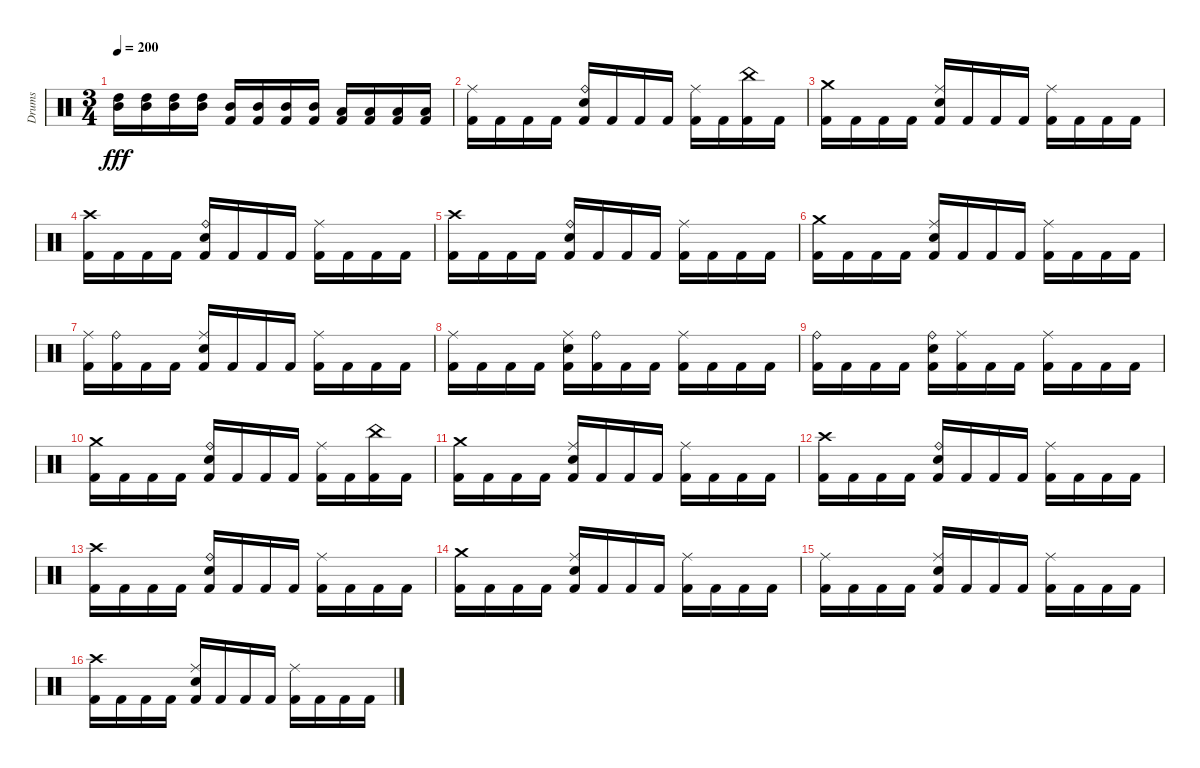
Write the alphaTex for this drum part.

\track ("Drums" "Drums") {instrument percussion}
\staff {score}
\articulation defaults
\ts (3 4)
\tempo 200
\clef neutral
\ks c
("High Tom (hit)" "Mid Tom (hit)").16{dy fff} ("High Tom (hit)" "Mid Tom (hit)").16 ("High Tom (hit)" "Mid Tom (hit)").16 ("High Tom (hit)" "Mid Tom (hit)").16 ("Mid Tom (hit)" "Kick (hit) 2").16 ("Mid Tom (hit)" "Kick (hit) 2").16 ("Mid Tom (hit)" "Kick (hit) 2").16 ("Mid Tom (hit)" "Kick (hit) 2").16 ("Low Tom (hit)" "Kick (hit) 2").16 ("Low Tom (hit)" "Kick (hit) 2").16 ("Low Tom (hit)" "Kick (hit) 2").16 ("Low Tom (hit)" "Kick (hit) 2").16 |
("Ride (middle)" "Kick (hit) 2").16 "Kick (hit) 2".16 "Kick (hit) 2".16 "Kick (hit) 2".16 ("Ride (bell)" "Snare (hit) 2" "Kick (hit) 2").16 "Kick (hit) 2".16 "Kick (hit) 2".16 "Kick (hit) 2".16 ("Ride (middle)" "Kick (hit) 2").16 "Kick (hit) 2".16 ("China (hit)" "Kick (hit) 2").16 "Kick (hit) 2".16 |
("Crash medium (hit)" "Kick (hit) 2").16 "Kick (hit) 2".16 "Kick (hit) 2".16 "Kick (hit) 2".16 ("Ride (middle)" "Snare (hit) 2" "Kick (hit) 2").16 "Kick (hit) 2".16 "Kick (hit) 2".16 "Kick (hit) 2".16 ("Ride (middle)" "Kick (hit) 2").16 "Kick (hit) 2".16 "Kick (hit) 2".16 "Kick (hit) 2".16 |
("Crash high (hit)" "Kick (hit) 2").16 "Kick (hit) 2".16 "Kick (hit) 2".16 "Kick (hit) 2".16 ("Ride (bell)" "Snare (hit) 2" "Kick (hit) 2").16 "Kick (hit) 2".16 "Kick (hit) 2".16 "Kick (hit) 2".16 ("Ride (middle)" "Kick (hit) 2").16 "Kick (hit) 2".16 "Kick (hit) 2".16 "Kick (hit) 2".16 |
("Crash high (hit)" "Kick (hit) 2").16 "Kick (hit) 2".16 "Kick (hit) 2".16 "Kick (hit) 2".16 ("Ride (bell)" "Snare (hit) 2" "Kick (hit) 2").16 "Kick (hit) 2".16 "Kick (hit) 2".16 "Kick (hit) 2".16 ("Ride (middle)" "Kick (hit) 2").16 "Kick (hit) 2".16 "Kick (hit) 2".16 "Kick (hit) 2".16 |
("Crash medium (hit)" "Kick (hit) 2").16 "Kick (hit) 2".16 "Kick (hit) 2".16 "Kick (hit) 2".16 ("Ride (middle)" "Snare (hit) 2" "Kick (hit) 2").16 "Kick (hit) 2".16 "Kick (hit) 2".16 "Kick (hit) 2".16 ("Ride (middle)" "Kick (hit) 2").16 "Kick (hit) 2".16 "Kick (hit) 2".16 "Kick (hit) 2".16 |
("Ride (middle)" "Kick (hit) 2").16 ("Ride (bell)" "Kick (hit) 2").16 "Kick (hit) 2".16 "Kick (hit) 2".16 ("Ride (middle)" "Snare (hit) 2" "Kick (hit) 2").16 "Kick (hit) 2".16 "Kick (hit) 2".16 "Kick (hit) 2".16 ("Ride (middle)" "Kick (hit) 2").16 "Kick (hit) 2".16 "Kick (hit) 2".16 "Kick (hit) 2".16 |
("Ride (middle)" "Kick (hit) 2").16 "Kick (hit) 2".16 "Kick (hit) 2".16 "Kick (hit) 2".16 ("Ride (middle)" "Snare (hit) 2" "Kick (hit) 2").16 ("Ride (bell)" "Kick (hit) 2").16 "Kick (hit) 2".16 "Kick (hit) 2".16 ("Ride (middle)" "Kick (hit) 2").16 "Kick (hit) 2".16 "Kick (hit) 2".16 "Kick (hit) 2".16 |
("Ride (bell)" "Kick (hit) 2").16 "Kick (hit) 2".16 "Kick (hit) 2".16 "Kick (hit) 2".16 ("Ride (bell)" "Snare (hit) 2" "Kick (hit) 2").16 ("Ride (middle)" "Kick (hit) 2").16 "Kick (hit) 2".16 "Kick (hit) 2".16 ("Ride (middle)" "Kick (hit) 2").16 "Kick (hit) 2".16 "Kick (hit) 2".16 "Kick (hit) 2".16 |
("Crash medium (hit)" "Kick (hit) 2").16 "Kick (hit) 2".16 "Kick (hit) 2".16 "Kick (hit) 2".16 ("Ride (bell)" "Snare (hit) 2" "Kick (hit) 2").16 "Kick (hit) 2".16 "Kick (hit) 2".16 "Kick (hit) 2".16 ("Ride (middle)" "Kick (hit) 2").16 "Kick (hit) 2".16 ("China (hit)" "Kick (hit) 2").16 "Kick (hit) 2".16 |
("Crash medium (hit)" "Kick (hit) 2").16 "Kick (hit) 2".16 "Kick (hit) 2".16 "Kick (hit) 2".16 ("Ride (middle)" "Snare (hit) 2" "Kick (hit) 2").16 "Kick (hit) 2".16 "Kick (hit) 2".16 "Kick (hit) 2".16 ("Ride (middle)" "Kick (hit) 2").16 "Kick (hit) 2".16 "Kick (hit) 2".16 "Kick (hit) 2".16 |
("Crash high (hit)" "Kick (hit) 2").16 "Kick (hit) 2".16 "Kick (hit) 2".16 "Kick (hit) 2".16 ("Ride (bell)" "Snare (hit) 2" "Kick (hit) 2").16 "Kick (hit) 2".16 "Kick (hit) 2".16 "Kick (hit) 2".16 ("Ride (middle)" "Kick (hit) 2").16 "Kick (hit) 2".16 "Kick (hit) 2".16 "Kick (hit) 2".16 |
("Crash high (hit)" "Kick (hit) 2").16 "Kick (hit) 2".16 "Kick (hit) 2".16 "Kick (hit) 2".16 ("Ride (bell)" "Snare (hit) 2" "Kick (hit) 2").16 "Kick (hit) 2".16 "Kick (hit) 2".16 "Kick (hit) 2".16 ("Ride (middle)" "Kick (hit) 2").16 "Kick (hit) 2".16 "Kick (hit) 2".16 "Kick (hit) 2".16 |
("Crash medium (hit)" "Kick (hit) 2").16 "Kick (hit) 2".16 "Kick (hit) 2".16 "Kick (hit) 2".16 ("Ride (middle)" "Snare (hit) 2" "Kick (hit) 2").16 "Kick (hit) 2".16 "Kick (hit) 2".16 "Kick (hit) 2".16 ("Ride (middle)" "Kick (hit) 2").16 "Kick (hit) 2".16 "Kick (hit) 2".16 "Kick (hit) 2".16 |
("Ride (middle)" "Kick (hit) 2").16 "Kick (hit) 2".16 "Kick (hit) 2".16 "Kick (hit) 2".16 ("Ride (middle)" "Snare (hit) 2" "Kick (hit) 2").16 "Kick (hit) 2".16 "Kick (hit) 2".16 "Kick (hit) 2".16 ("Ride (middle)" "Kick (hit) 2").16 "Kick (hit) 2".16 "Kick (hit) 2".16 "Kick (hit) 2".16 |
("Crash high (hit)" "Kick (hit) 2").16 "Kick (hit) 2".16 "Kick (hit) 2".16 "Kick (hit) 2".16 ("Ride (middle)" "Snare (hit) 2" "Kick (hit) 2").16 "Kick (hit) 2".16 "Kick (hit) 2".16 "Kick (hit) 2".16 ("Ride (middle)" "Kick (hit) 2").16 "Kick (hit) 2".16 "Kick (hit) 2".16 "Kick (hit) 2".16
